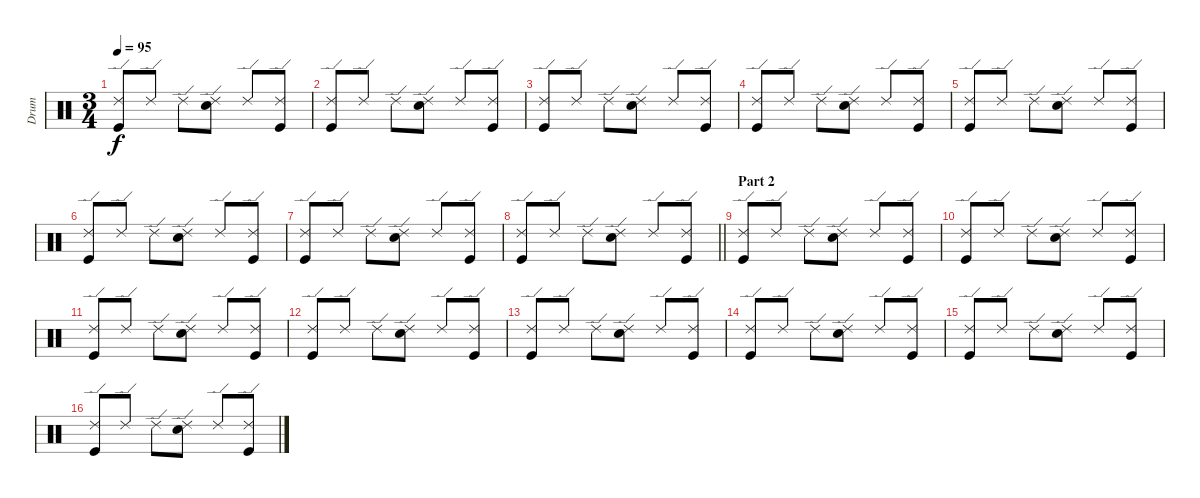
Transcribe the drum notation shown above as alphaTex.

\track ("Drum" "Drum") {instrument percussion}
\staff {score}
\articulation defaults
\ts (3 4)
\tempo 95
\clef neutral
\ks c
("Kick (hit)" "Ride (edge) 2").8{dy f} "Ride (edge) 2".8 "Ride (edge) 2".8 ("Snare (hit) 2" "Ride (edge) 2").8 "Ride (edge) 2".8 ("Kick (hit)" "Ride (edge) 2").8 |
("Kick (hit)" "Ride (edge) 2").8 "Ride (edge) 2".8 "Ride (edge) 2".8 ("Snare (hit) 2" "Ride (edge) 2").8 "Ride (edge) 2".8 ("Kick (hit)" "Ride (edge) 2").8 |
("Kick (hit)" "Ride (edge) 2").8 "Ride (edge) 2".8 "Ride (edge) 2".8 ("Snare (hit) 2" "Ride (edge) 2").8 "Ride (edge) 2".8 ("Kick (hit)" "Ride (edge) 2").8 |
("Kick (hit)" "Ride (edge) 2").8 "Ride (edge) 2".8 "Ride (edge) 2".8 ("Snare (hit) 2" "Ride (edge) 2").8 "Ride (edge) 2".8 ("Kick (hit)" "Ride (edge) 2").8 |
("Kick (hit)" "Ride (edge) 2").8 "Ride (edge) 2".8 "Ride (edge) 2".8 ("Snare (hit) 2" "Ride (edge) 2").8 "Ride (edge) 2".8 ("Kick (hit)" "Ride (edge) 2").8 |
("Kick (hit)" "Ride (edge) 2").8 "Ride (edge) 2".8 "Ride (edge) 2".8 ("Snare (hit) 2" "Ride (edge) 2").8 "Ride (edge) 2".8 ("Kick (hit)" "Ride (edge) 2").8 |
("Kick (hit)" "Ride (edge) 2").8 "Ride (edge) 2".8 "Ride (edge) 2".8 ("Snare (hit) 2" "Ride (edge) 2").8 "Ride (edge) 2".8 ("Kick (hit)" "Ride (edge) 2").8 |
\barLineRight lightlight
("Kick (hit)" "Ride (edge) 2").8 "Ride (edge) 2".8 "Ride (edge) 2".8 ("Snare (hit) 2" "Ride (edge) 2").8 "Ride (edge) 2".8 ("Kick (hit)" "Ride (edge) 2").8 |
\section ("" "Part 2")
("Kick (hit)" "Ride (edge) 2").8 "Ride (edge) 2".8 "Ride (edge) 2".8 ("Snare (hit) 2" "Ride (edge) 2").8 "Ride (edge) 2".8 ("Kick (hit)" "Ride (edge) 2").8 |
("Kick (hit)" "Ride (edge) 2").8 "Ride (edge) 2".8 "Ride (edge) 2".8 ("Snare (hit) 2" "Ride (edge) 2").8 "Ride (edge) 2".8 ("Kick (hit)" "Ride (edge) 2").8 |
("Kick (hit)" "Ride (edge) 2").8 "Ride (edge) 2".8 "Ride (edge) 2".8 ("Snare (hit) 2" "Ride (edge) 2").8 "Ride (edge) 2".8 ("Kick (hit)" "Ride (edge) 2").8 |
("Kick (hit)" "Ride (edge) 2").8 "Ride (edge) 2".8 "Ride (edge) 2".8 ("Snare (hit) 2" "Ride (edge) 2").8 "Ride (edge) 2".8 ("Kick (hit)" "Ride (edge) 2").8 |
("Kick (hit)" "Ride (edge) 2").8 "Ride (edge) 2".8 "Ride (edge) 2".8 ("Snare (hit) 2" "Ride (edge) 2").8 "Ride (edge) 2".8 ("Kick (hit)" "Ride (edge) 2").8 |
("Kick (hit)" "Ride (edge) 2").8 "Ride (edge) 2".8 "Ride (edge) 2".8 ("Snare (hit) 2" "Ride (edge) 2").8 "Ride (edge) 2".8 ("Kick (hit)" "Ride (edge) 2").8 |
("Kick (hit)" "Ride (edge) 2").8 "Ride (edge) 2".8 "Ride (edge) 2".8 ("Snare (hit) 2" "Ride (edge) 2").8 "Ride (edge) 2".8 ("Kick (hit)" "Ride (edge) 2").8 |
("Kick (hit)" "Ride (edge) 2").8 "Ride (edge) 2".8 "Ride (edge) 2".8 ("Snare (hit) 2" "Ride (edge) 2").8 "Ride (edge) 2".8 ("Kick (hit)" "Ride (edge) 2").8
